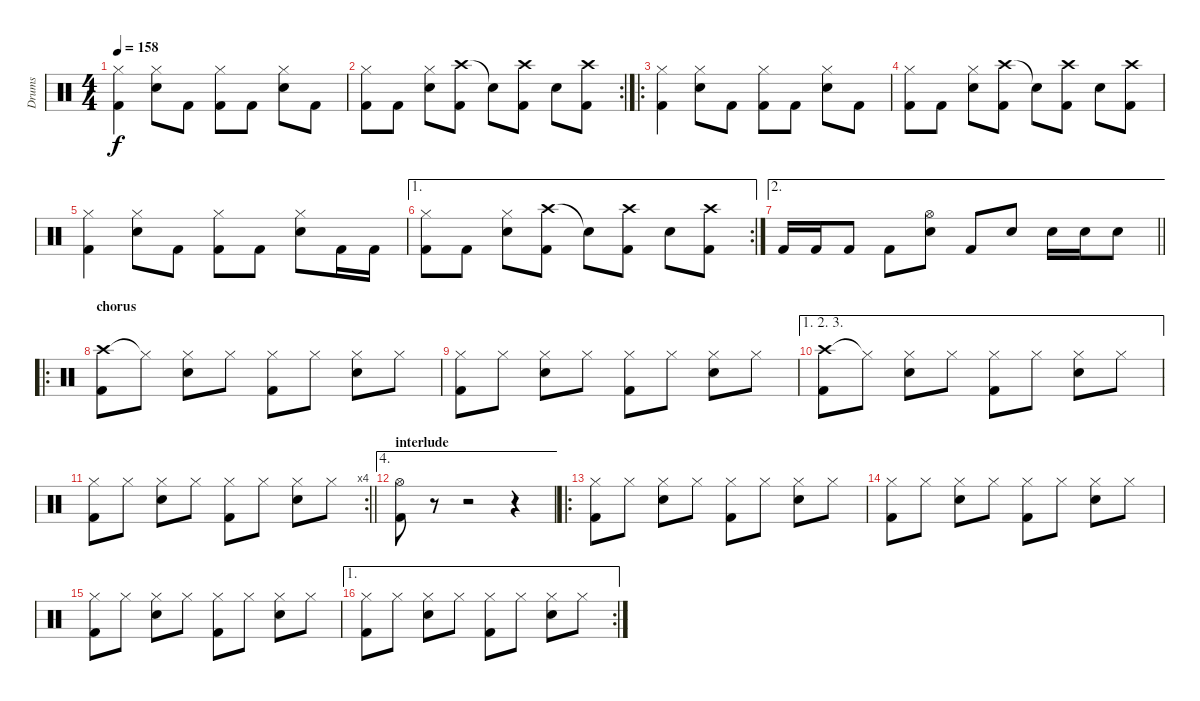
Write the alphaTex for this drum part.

\track ("Drums" "Drums") {instrument percussion}
\staff {score}
\articulation defaults
\ts (4 4)
\tempo 158
\clef neutral
\ks c
("Hi-Hat (closed)" "Kick (hit) 2").4{dy f} ("Hi-Hat (closed)" "Electric Snare (hit)").8 "Kick (hit) 2".8 ("Hi-Hat (closed)" "Kick (hit) 2").8 "Kick (hit) 2".8 ("Hi-Hat (closed)" "Electric Snare (hit)").8 "Kick (hit) 2".8 |
\rc 2
("Hi-Hat (closed)" "Kick (hit) 2").8 "Kick (hit) 2".8 ("Hi-Hat (closed)" "Electric Snare (hit)").8 ("Crash high (hit)" "Kick (hit) 2").8 "Snare (hit)"{t}.8 ("Crash high (hit)" "Kick (hit) 2").8 "Electric Snare (hit)".8 ("Crash high (hit)" "Kick (hit) 2").8 |
\ro
("Hi-Hat (closed)" "Kick (hit) 2").4 ("Hi-Hat (closed)" "Electric Snare (hit)").8 "Kick (hit) 2".8 ("Hi-Hat (closed)" "Kick (hit) 2").8 "Kick (hit) 2".8 ("Hi-Hat (closed)" "Electric Snare (hit)").8 "Kick (hit) 2".8 |
("Hi-Hat (closed)" "Kick (hit) 2").8 "Kick (hit) 2".8 ("Hi-Hat (closed)" "Electric Snare (hit)").8 ("Crash high (hit)" "Kick (hit) 2").8 "Snare (hit)"{t}.8 ("Crash high (hit)" "Kick (hit) 2").8 "Electric Snare (hit)".8 ("Crash high (hit)" "Kick (hit) 2").8 |
("Hi-Hat (closed)" "Kick (hit) 2").4 ("Hi-Hat (closed)" "Electric Snare (hit)").8 "Kick (hit) 2".8 ("Hi-Hat (closed)" "Kick (hit) 2").8 "Kick (hit) 2".8 ("Hi-Hat (closed)" "Electric Snare (hit)").8 "Kick (hit) 2".16 "Kick (hit) 2".16 |
\ae 1
\rc 2
("Hi-Hat (closed)" "Kick (hit) 2").8 "Kick (hit) 2".8 ("Hi-Hat (closed)" "Electric Snare (hit)").8 ("Crash high (hit)" "Kick (hit) 2").8 "Snare (hit)"{t}.8 ("Crash high (hit)" "Kick (hit) 2").8 "Electric Snare (hit)".8 ("Crash high (hit)" "Kick (hit) 2").8 |
\ae 2
\barLineRight lightlight "Kick (hit) 2".16 "Kick (hit) 2".16 "Kick (hit) 2".8 "Kick (hit) 2".8
("Hi-Hat (open)" "Electric Snare (hit)").8 "Kick (hit) 2".8 "Electric Snare (hit)".8 "Electric Snare (hit)".16 "Electric Snare (hit)".16 "Electric Snare (hit)".8 |
\ro
\section ("" "chorus")
("Crash high (hit)" "Kick (hit) 2").8 "Hi-Hat (closed)"{t}.8 ("Hi-Hat (closed)" "Electric Snare (hit)").8 "Hi-Hat (closed)".8 ("Hi-Hat (closed)" "Kick (hit) 2").8 "Hi-Hat (closed)".8 ("Hi-Hat (closed)" "Electric Snare (hit)").8 "Hi-Hat (closed)".8 |
("Hi-Hat (closed)" "Kick (hit) 2").8 "Hi-Hat (closed)".8 ("Hi-Hat (closed)" "Electric Snare (hit)").8 "Hi-Hat (closed)".8 ("Hi-Hat (closed)" "Kick (hit) 2").8 "Hi-Hat (closed)".8 ("Hi-Hat (closed)" "Electric Snare (hit)").8 "Hi-Hat (closed)".8 |
\ae (1 2 3)
("Crash high (hit)" "Kick (hit) 2").8 "Hi-Hat (closed)"{t}.8 ("Hi-Hat (closed)" "Electric Snare (hit)").8 "Hi-Hat (closed)".8 ("Hi-Hat (closed)" "Kick (hit) 2").8 "Hi-Hat (closed)".8 ("Hi-Hat (closed)" "Electric Snare (hit)").8 "Hi-Hat (closed)".8 |
\rc 4
\barLineRight lightlight
("Hi-Hat (closed)" "Kick (hit) 2").8 "Hi-Hat (closed)".8 ("Hi-Hat (closed)" "Electric Snare (hit)").8 "Hi-Hat (closed)".8 ("Hi-Hat (closed)" "Kick (hit) 2").8 "Hi-Hat (closed)".8 ("Hi-Hat (closed)" "Electric Snare (hit)").8 "Hi-Hat (closed)".8 |
\ae 4
\section ("" "interlude")
("Hi-Hat (open)" "Kick (hit) 2").8 r.8 r.2 r.4 |
\ro
("Hi-Hat (closed)" "Kick (hit) 2").8 "Hi-Hat (closed)".8 ("Hi-Hat (closed)" "Electric Snare (hit)").8 "Hi-Hat (closed)".8 ("Hi-Hat (closed)" "Kick (hit) 2").8 "Hi-Hat (closed)".8 ("Hi-Hat (closed)" "Electric Snare (hit)").8 "Hi-Hat (closed)".8 |
("Hi-Hat (closed)" "Kick (hit) 2").8 "Hi-Hat (closed)".8 ("Hi-Hat (closed)" "Electric Snare (hit)").8 "Hi-Hat (closed)".8 ("Hi-Hat (closed)" "Kick (hit) 2").8 "Hi-Hat (closed)".8 ("Hi-Hat (closed)" "Electric Snare (hit)").8 "Hi-Hat (closed)".8 |
("Hi-Hat (closed)" "Kick (hit) 2").8 "Hi-Hat (closed)".8 ("Hi-Hat (closed)" "Electric Snare (hit)").8 "Hi-Hat (closed)".8 ("Hi-Hat (closed)" "Kick (hit) 2").8 "Hi-Hat (closed)".8 ("Hi-Hat (closed)" "Electric Snare (hit)").8 "Hi-Hat (closed)".8 |
\ae 1
\rc 2
("Hi-Hat (closed)" "Kick (hit) 2").8 "Hi-Hat (closed)".8 ("Hi-Hat (closed)" "Electric Snare (hit)").8 "Hi-Hat (closed)".8 ("Hi-Hat (closed)" "Kick (hit) 2").8 "Hi-Hat (closed)".8 ("Hi-Hat (closed)" "Electric Snare (hit)").8 "Hi-Hat (closed)".8
